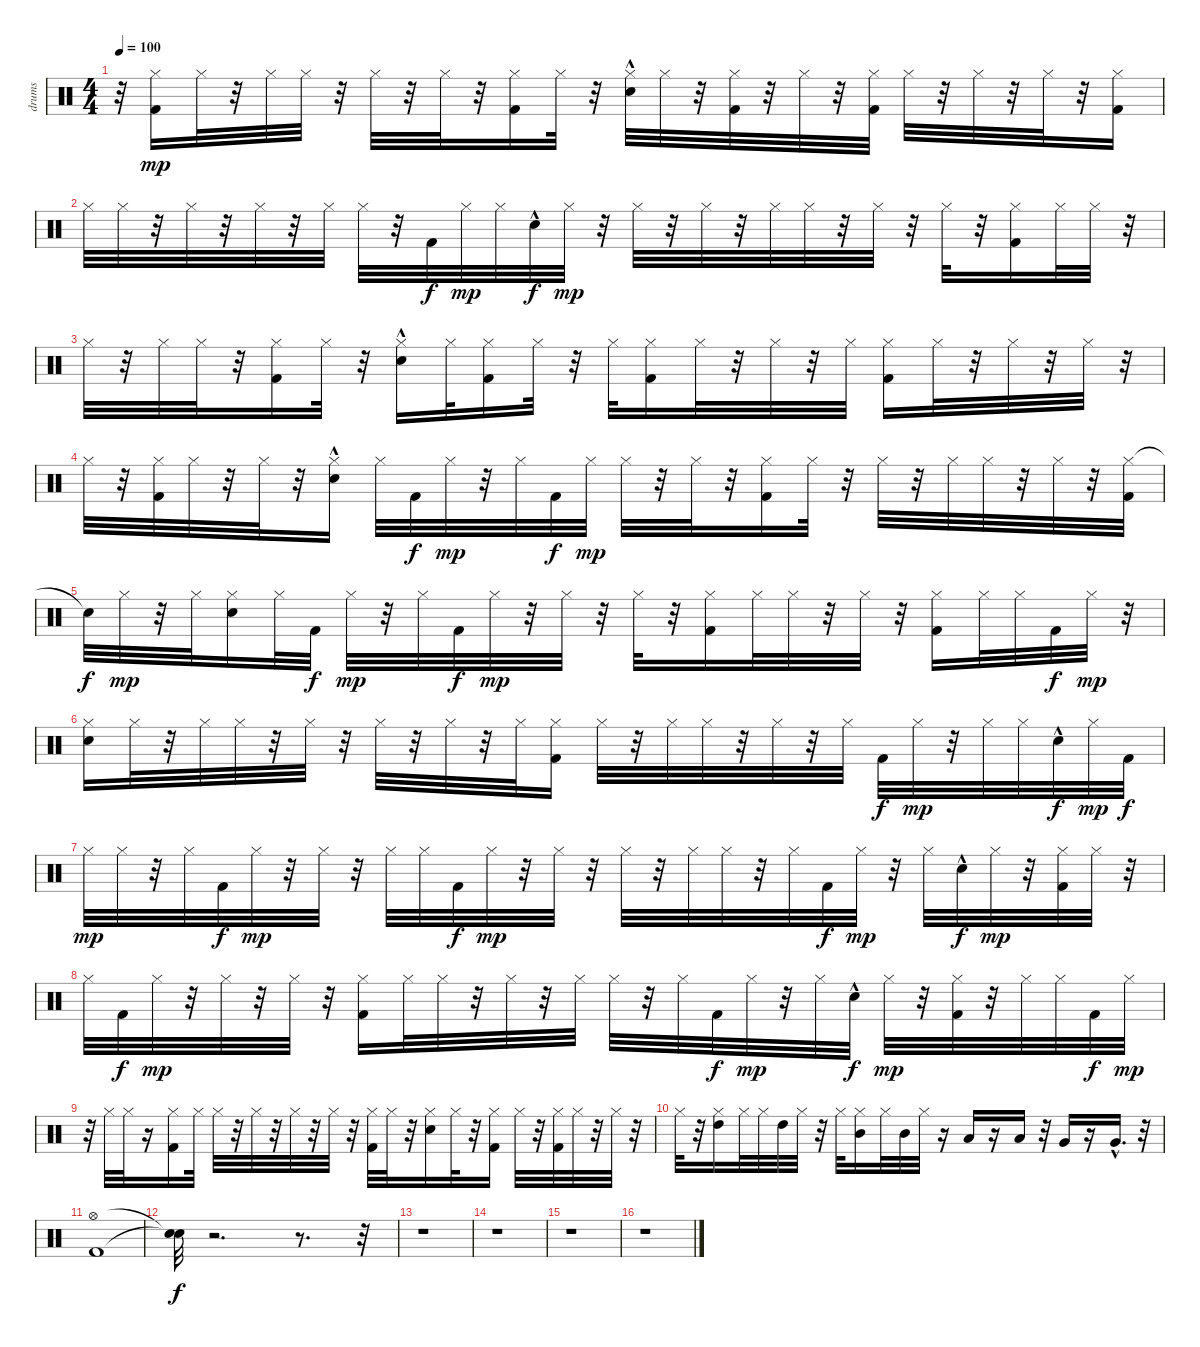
\track ("drums" "drums") {instrument percussion}
\staff {score}
\articulation defaults
\ts (4 4)
\tempo 100
\clef neutral
\ks c
r.32{dy mp} ("Hi-Hat (closed)" "Kick (hit) 2").16 "Hi-Hat (closed)".32 r.32 "Hi-Hat (closed)".32 "Hi-Hat (closed)".32 r.32 "Hi-Hat (closed)".32 r.32 "Hi-Hat (closed)".32 r.32 ("Hi-Hat (closed)" "Kick (hit) 2").16 "Hi-Hat (closed)".32 r.32 ("Hi-Hat (closed)" "Electric Snare (hit)"{hac}).32 "Hi-Hat (closed)".32 r.32 ("Hi-Hat (closed)" "Kick (hit) 2").32 r.32 "Hi-Hat (closed)".32 r.32 ("Hi-Hat (closed)" "Kick (hit) 2").32 "Hi-Hat (closed)".32 r.32 "Hi-Hat (closed)".32 r.32 "Hi-Hat (closed)".32 r.32 ("Hi-Hat (closed)" "Kick (hit) 2").16 |
"Hi-Hat (closed)".32 "Hi-Hat (closed)".32 r.32 "Hi-Hat (closed)".32 r.32 "Hi-Hat (closed)".32 r.32 "Hi-Hat (closed)".32 "Hi-Hat (closed)".32 r.32 "Kick (hit) 2".32{dy f} "Hi-Hat (closed)".32{dy mp} "Hi-Hat (closed)".32 "Electric Snare (hit)"{hac}.32{dy f} "Hi-Hat (closed)".32{dy mp} r.32 "Hi-Hat (closed)".32 r.32 "Hi-Hat (closed)".32 r.32 "Hi-Hat (closed)".32 "Hi-Hat (closed)".32 r.32 "Hi-Hat (closed)".32 r.32 "Hi-Hat (closed)".32 r.32 ("Kick (hit) 2" "Hi-Hat (closed)").16 "Hi-Hat (closed)".32 "Hi-Hat (closed)".32 r.32 |
"Hi-Hat (closed)".32 r.32 "Hi-Hat (closed)".32 "Hi-Hat (closed)".32 r.32 ("Hi-Hat (closed)" "Kick (hit) 2").16 "Hi-Hat (closed)".32 r.32 ("Hi-Hat (closed)" "Electric Snare (hit)"{hac}).16 "Hi-Hat (closed)".32 ("Kick (hit) 2" "Hi-Hat (closed)").16 "Hi-Hat (closed)".32 r.32 "Hi-Hat (closed)".32 ("Kick (hit) 2" "Hi-Hat (closed)").16 "Hi-Hat (closed)".32 r.32 "Hi-Hat (closed)".32 r.32 "Hi-Hat (closed)".32 ("Kick (hit) 2" "Hi-Hat (closed)").16 "Hi-Hat (closed)".32 r.32 "Hi-Hat (closed)".32 r.32 "Hi-Hat (closed)".32 r.32 |
"Hi-Hat (closed)".32 r.32 ("Hi-Hat (closed)" "Kick (hit) 2").32 "Hi-Hat (closed)".32 r.32 "Hi-Hat (closed)".32 r.32 ("Electric Snare (hit)"{hac} "Hi-Hat (closed)").16 "Hi-Hat (closed)".32 "Kick (hit) 2".32{dy f} "Hi-Hat (closed)".32{dy mp} r.32 "Hi-Hat (closed)".32 "Kick (hit) 2".32{dy f} "Hi-Hat (closed)".32{dy mp} "Hi-Hat (closed)".32 r.32 "Hi-Hat (closed)".32 r.32 ("Hi-Hat (closed)" "Kick (hit) 2").16 "Hi-Hat (closed)".32 r.32 "Hi-Hat (closed)".32 r.32 "Hi-Hat (closed)".32 "Hi-Hat (closed)".32 r.32 "Hi-Hat (closed)".32 r.32 ("Hi-Hat (closed)" "Kick (hit) 2").32 |
"Snare (hit)"{t}.32{dy f} "Hi-Hat (closed)".32{dy mp} r.32 "Hi-Hat (closed)".32 ("Electric Snare (hit)" "Hi-Hat (closed)").16 "Hi-Hat (closed)".32 "Kick (hit) 2".32{dy f} "Hi-Hat (closed)".32{dy mp} r.32 "Hi-Hat (closed)".32 "Kick (hit) 2".32{dy f} "Hi-Hat (closed)".32{dy mp} r.32 "Hi-Hat (closed)".32 r.32 "Hi-Hat (closed)".32 r.32 ("Hi-Hat (closed)" "Kick (hit) 2").16 "Hi-Hat (closed)".32 "Hi-Hat (closed)".32 r.32 "Hi-Hat (closed)".32 r.32 ("Hi-Hat (closed)" "Kick (hit) 2").16 "Hi-Hat (closed)".32 "Hi-Hat (closed)".32 "Kick (hit) 2".32{dy f} "Hi-Hat (closed)".32{dy mp} r.32 |
("Hi-Hat (closed)" "Electric Snare (hit)").16 "Hi-Hat (closed)".32 r.32 "Hi-Hat (closed)".32 "Hi-Hat (closed)".32 r.32 "Hi-Hat (closed)".32 r.32 "Hi-Hat (closed)".32 r.32 "Hi-Hat (closed)".32 r.32 "Hi-Hat (closed)".32 ("Kick (hit) 2" "Hi-Hat (closed)").16 "Hi-Hat (closed)".32 r.32 "Hi-Hat (closed)".32 "Hi-Hat (closed)".32 r.32 "Hi-Hat (closed)".32 r.32 "Hi-Hat (closed)".32 "Kick (hit) 2".32{dy f} "Hi-Hat (closed)".32{dy mp} r.32 "Hi-Hat (closed)".32 "Hi-Hat (closed)".32 "Electric Snare (hit)"{hac}.32{dy f} "Hi-Hat (closed)".32{dy mp} "Kick (hit) 2".32{dy f} |
"Hi-Hat (closed)".32{dy mp} "Hi-Hat (closed)".32 r.32 "Hi-Hat (closed)".32 "Kick (hit) 2".32{dy f} "Hi-Hat (closed)".32{dy mp} r.32 "Hi-Hat (closed)".32 r.32 "Hi-Hat (closed)".32 "Hi-Hat (closed)".32 "Kick (hit) 2".32{dy f} "Hi-Hat (closed)".32{dy mp} r.32 "Hi-Hat (closed)".32 r.32 "Hi-Hat (closed)".32 r.32 "Hi-Hat (closed)".32 "Hi-Hat (closed)".32 r.32 "Hi-Hat (closed)".32 "Kick (hit) 2".32{dy f} "Hi-Hat (closed)".32{dy mp} r.32 "Hi-Hat (closed)".32 "Electric Snare (hit)"{hac}.32{dy f} "Hi-Hat (closed)".32{dy mp} r.32 ("Hi-Hat (closed)" "Kick (hit) 2").32 "Hi-Hat (closed)".32 r.32 |
"Hi-Hat (closed)".32 "Kick (hit) 2".32{dy f} "Hi-Hat (closed)".32{dy mp} r.32 "Hi-Hat (closed)".32 r.32 "Hi-Hat (closed)".32 r.32 ("Hi-Hat (closed)" "Kick (hit) 2").16 "Hi-Hat (closed)".32 "Hi-Hat (closed)".32 r.32 "Hi-Hat (closed)".32 r.32 "Hi-Hat (closed)".32 "Hi-Hat (closed)".32 r.32 "Hi-Hat (closed)".32 "Kick (hit) 2".32{dy f} "Hi-Hat (closed)".32{dy mp} r.32 "Hi-Hat (closed)".32 "Electric Snare (hit)"{hac}.32{dy f} "Hi-Hat (closed)".32{dy mp} r.32 ("Hi-Hat (closed)" "Kick (hit) 2").32 r.32 "Hi-Hat (closed)".32 "Hi-Hat (closed)".32 "Kick (hit) 2".32{dy f} "Hi-Hat (closed)".32{dy mp} |
r.32 "Hi-Hat (closed)".32 "Hi-Hat (closed)".32 r.16 ("Hi-Hat (closed)" "Kick (hit) 2").16 "Hi-Hat (closed)".32 "Hi-Hat (closed)".32 r.32 "Hi-Hat (closed)".32 r.32 "Hi-Hat (closed)".32 r.32 "Hi-Hat (closed)".32 r.32 ("Kick (hit) 2" "Hi-Hat (closed)").32 "Hi-Hat (closed)".32 r.32 ("Electric Snare (hit)" "Hi-Hat (closed)").16 "Hi-Hat (closed)".32 r.32 ("Kick (hit) 2" "Hi-Hat (closed)").16 "Hi-Hat (closed)".32 r.32 ("Hi-Hat (closed)" "Kick (hit) 2").32 "Hi-Hat (closed)".32 r.32 "Hi-Hat (closed)".32 r.32 |
"Hi-Hat (closed)".32 r.32 ("Hi-Hat (closed)" "High Tom (hit)").16 "Hi-Hat (closed)".32 "Hi-Hat (closed)".32 "High Tom (hit)".32 "Hi-Hat (closed)".32 r.32 "Hi-Hat (closed)".32 ("Mid Tom (hit)" "Hi-Hat (closed)").16 "Hi-Hat (closed)".32 "Mid Tom (hit)".32 "Hi-Hat (closed)".32 r.16 "Low Tom (hit)".16 r.16 "Low Tom (hit)".16 r.32 "Very Low Tom (hit)".16 r.16 "Very Low Tom (hit)"{hac}.16{d} r.32 |
("Kick (hit) 2" "Hi-Hat (open)").1 |
("Snare (hit)"{t} "Snare (hit)"{t}).32{dy f} r.2{d} r.8{d} r.32 |
r.1 |
r.1 |
r.1 |
r.1
